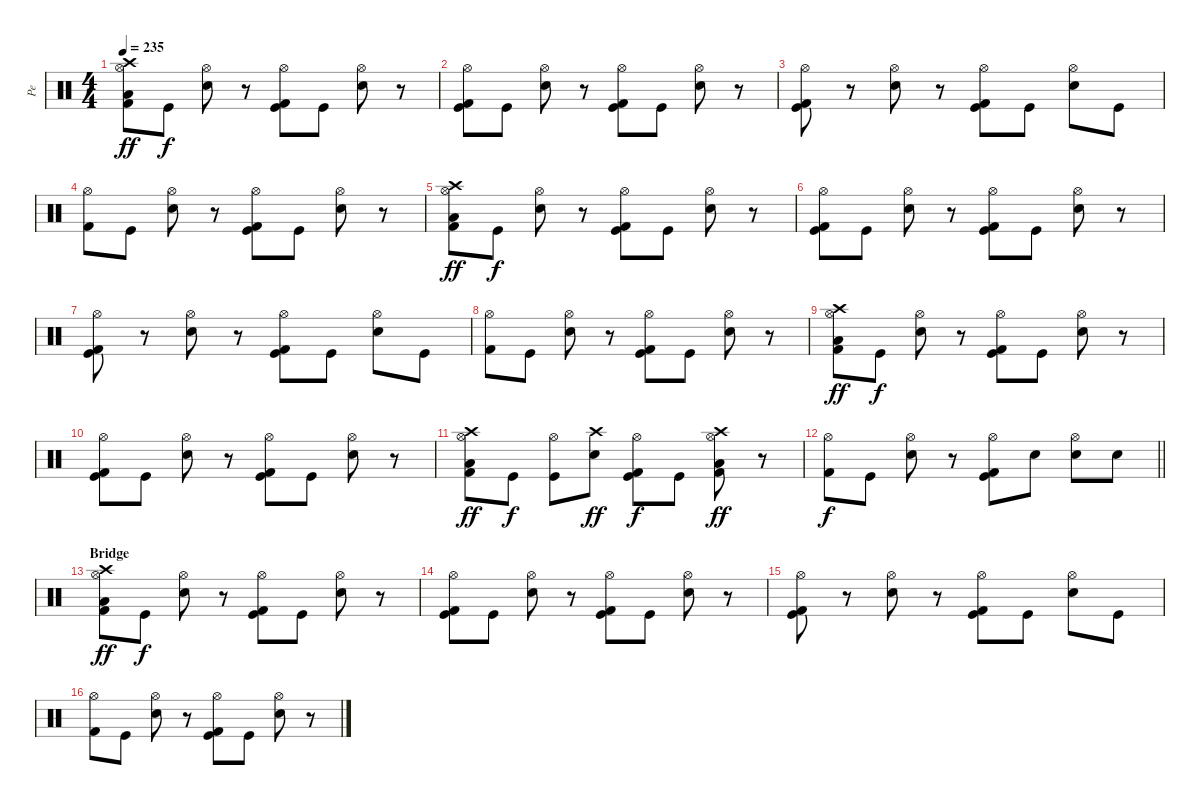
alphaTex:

\track ("Pe" "Pe") {instrument percussion}
\staff {score}
\articulation defaults
\ts (4 4)
\tempo 235
\clef neutral
\ks c
("Low Tom (hit)" "Hi-Hat (open)" "Kick (hit) 2" "Crash high (hit)").8{dy ff} "Kick (hit)".8{dy f} ("Electric Snare (hit)" "Hi-Hat (open)").8 r.8 ("Kick (hit)" "Hi-Hat (open)" "Kick (hit) 2").8 "Kick (hit)".8 ("Electric Snare (hit)" "Hi-Hat (open)").8 r.8 |
("Kick (hit)" "Hi-Hat (open)" "Kick (hit) 2").8 "Kick (hit)".8 ("Electric Snare (hit)" "Hi-Hat (open)").8 r.8 ("Kick (hit)" "Hi-Hat (open)" "Kick (hit) 2").8 "Kick (hit)".8 ("Electric Snare (hit)" "Hi-Hat (open)").8 r.8 |
("Kick (hit)" "Hi-Hat (open)" "Kick (hit) 2").8 r.8 ("Electric Snare (hit)" "Hi-Hat (open)").8 r.8 ("Kick (hit)" "Hi-Hat (open)" "Kick (hit) 2").8 "Kick (hit)".8 ("Electric Snare (hit)" "Hi-Hat (open)").8 "Kick (hit)".8 |
("Hi-Hat (open)" "Kick (hit) 2").8 "Kick (hit)".8 ("Electric Snare (hit)" "Hi-Hat (open)").8 r.8 ("Kick (hit)" "Hi-Hat (open)" "Kick (hit) 2").8 "Kick (hit)".8 ("Electric Snare (hit)" "Hi-Hat (open)").8 r.8 |
("Low Tom (hit)" "Hi-Hat (open)" "Kick (hit) 2" "Crash high (hit)").8{dy ff} "Kick (hit)".8{dy f} ("Electric Snare (hit)" "Hi-Hat (open)").8 r.8 ("Kick (hit)" "Hi-Hat (open)" "Kick (hit) 2").8 "Kick (hit)".8 ("Electric Snare (hit)" "Hi-Hat (open)").8 r.8 |
("Kick (hit)" "Hi-Hat (open)" "Kick (hit) 2").8 "Kick (hit)".8 ("Electric Snare (hit)" "Hi-Hat (open)").8 r.8 ("Kick (hit)" "Hi-Hat (open)" "Kick (hit) 2").8 "Kick (hit)".8 ("Electric Snare (hit)" "Hi-Hat (open)").8 r.8 |
("Kick (hit)" "Hi-Hat (open)" "Kick (hit) 2").8 r.8 ("Electric Snare (hit)" "Hi-Hat (open)").8 r.8 ("Kick (hit)" "Hi-Hat (open)" "Kick (hit) 2").8 "Kick (hit)".8 ("Electric Snare (hit)" "Hi-Hat (open)").8 "Kick (hit)".8 |
("Hi-Hat (open)" "Kick (hit) 2").8 "Kick (hit)".8 ("Electric Snare (hit)" "Hi-Hat (open)").8 r.8 ("Kick (hit)" "Hi-Hat (open)" "Kick (hit) 2").8 "Kick (hit)".8 ("Electric Snare (hit)" "Hi-Hat (open)").8 r.8 |
("Low Tom (hit)" "Hi-Hat (open)" "Kick (hit) 2" "Crash high (hit)").8{dy ff} "Kick (hit)".8{dy f} ("Electric Snare (hit)" "Hi-Hat (open)").8 r.8 ("Kick (hit)" "Hi-Hat (open)" "Kick (hit) 2").8 "Kick (hit)".8 ("Electric Snare (hit)" "Hi-Hat (open)").8 r.8 |
("Kick (hit)" "Hi-Hat (open)" "Kick (hit) 2").8 "Kick (hit)".8 ("Electric Snare (hit)" "Hi-Hat (open)").8 r.8 ("Kick (hit)" "Hi-Hat (open)" "Kick (hit) 2").8 "Kick (hit)".8 ("Electric Snare (hit)" "Hi-Hat (open)").8 r.8 |
("Low Tom (hit)" "Hi-Hat (open)" "Kick (hit) 2" "Crash high (hit)").8{dy ff} "Kick (hit)".8{dy f} ("Kick (hit)" "Hi-Hat (open)").8 ("Crash high (hit)" "Electric Snare (hit)").8{dy ff} ("Kick (hit)" "Hi-Hat (open)" "Kick (hit) 2").8{dy f} "Kick (hit)".8 ("Low Tom (hit)" "Hi-Hat (open)" "Kick (hit) 2" "Crash high (hit)").8{dy ff} r.8 |
\barLineRight lightlight
("Hi-Hat (open)" "Kick (hit) 2").8{dy f} "Kick (hit)".8 ("Electric Snare (hit)" "Hi-Hat (open)").8 r.8 ("Kick (hit)" "Hi-Hat (open)" "Kick (hit) 2").8 "Electric Snare (hit)".8 ("Electric Snare (hit)" "Hi-Hat (open)").8 "Electric Snare (hit)".8 |
\section ("" "Bridge")
("Low Tom (hit)" "Hi-Hat (open)" "Kick (hit) 2" "Crash high (hit)").8{dy ff} "Kick (hit)".8{dy f} ("Electric Snare (hit)" "Hi-Hat (open)").8 r.8 ("Kick (hit)" "Hi-Hat (open)" "Kick (hit) 2").8 "Kick (hit)".8 ("Electric Snare (hit)" "Hi-Hat (open)").8 r.8 |
("Kick (hit)" "Hi-Hat (open)" "Kick (hit) 2").8 "Kick (hit)".8 ("Electric Snare (hit)" "Hi-Hat (open)").8 r.8 ("Kick (hit)" "Hi-Hat (open)" "Kick (hit) 2").8 "Kick (hit)".8 ("Electric Snare (hit)" "Hi-Hat (open)").8 r.8 |
("Kick (hit)" "Hi-Hat (open)" "Kick (hit) 2").8 r.8 ("Electric Snare (hit)" "Hi-Hat (open)").8 r.8 ("Kick (hit)" "Hi-Hat (open)" "Kick (hit) 2").8 "Kick (hit)".8 ("Electric Snare (hit)" "Hi-Hat (open)").8 "Kick (hit)".8 |
("Hi-Hat (open)" "Kick (hit) 2").8 "Kick (hit)".8 ("Electric Snare (hit)" "Hi-Hat (open)").8 r.8 ("Kick (hit)" "Hi-Hat (open)" "Kick (hit) 2").8 "Kick (hit)".8 ("Electric Snare (hit)" "Hi-Hat (open)").8 r.8
